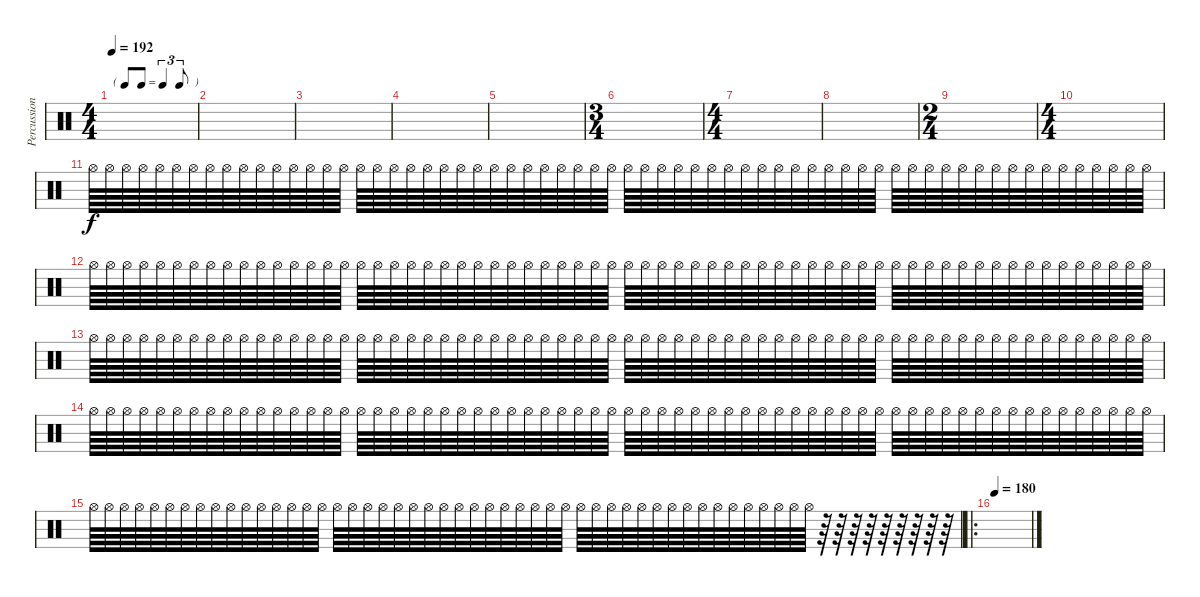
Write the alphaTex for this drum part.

\track ("Percussions" "Percussion") {instrument percussion}
\staff {score}
\articulation defaults
\ts (4 4)
\tf triplet8th
\tempo 192
\tempo 150
\tempo 192
\clef neutral
\ks c
|
|
|
|
|
\ts (3 4)
|
\ts (4 4)
|
|
\ts (2 4)
|
\ts (4 4)
|
"Hi-Hat (open)".64 "Hi-Hat (open)".64 "Hi-Hat (open)".64 "Hi-Hat (open)".64 "Hi-Hat (open)".64 "Hi-Hat (open)".64 "Hi-Hat (open)".64 "Hi-Hat (open)".64 "Hi-Hat (open)".64 "Hi-Hat (open)".64 "Hi-Hat (open)".64 "Hi-Hat (open)".64 "Hi-Hat (open)".64 "Hi-Hat (open)".64 "Hi-Hat (open)".64 "Hi-Hat (open)".64 "Hi-Hat (open)".64 "Hi-Hat (open)".64 "Hi-Hat (open)".64 "Hi-Hat (open)".64 "Hi-Hat (open)".64 "Hi-Hat (open)".64 "Hi-Hat (open)".64 "Hi-Hat (open)".64 "Hi-Hat (open)".64 "Hi-Hat (open)".64 "Hi-Hat (open)".64 "Hi-Hat (open)".64 "Hi-Hat (open)".64 "Hi-Hat (open)".64 "Hi-Hat (open)".64 "Hi-Hat (open)".64 "Hi-Hat (open)".64 "Hi-Hat (open)".64 "Hi-Hat (open)".64 "Hi-Hat (open)".64 "Hi-Hat (open)".64 "Hi-Hat (open)".64 "Hi-Hat (open)".64 "Hi-Hat (open)".64 "Hi-Hat (open)".64 "Hi-Hat (open)".64 "Hi-Hat (open)".64 "Hi-Hat (open)".64 "Hi-Hat (open)".64 "Hi-Hat (open)".64 "Hi-Hat (open)".64 "Hi-Hat (open)".64 "Hi-Hat (open)".64 "Hi-Hat (open)".64 "Hi-Hat (open)".64 "Hi-Hat (open)".64 "Hi-Hat (open)".64 "Hi-Hat (open)".64 "Hi-Hat (open)".64 "Hi-Hat (open)".64 "Hi-Hat (open)".64 "Hi-Hat (open)".64 "Hi-Hat (open)".64 "Hi-Hat (open)".64 "Hi-Hat (open)".64 "Hi-Hat (open)".64 "Hi-Hat (open)".64 "Hi-Hat (open)".64 |
"Hi-Hat (open)".64 "Hi-Hat (open)".64 "Hi-Hat (open)".64 "Hi-Hat (open)".64 "Hi-Hat (open)".64 "Hi-Hat (open)".64 "Hi-Hat (open)".64 "Hi-Hat (open)".64 "Hi-Hat (open)".64 "Hi-Hat (open)".64 "Hi-Hat (open)".64 "Hi-Hat (open)".64 "Hi-Hat (open)".64 "Hi-Hat (open)".64 "Hi-Hat (open)".64 "Hi-Hat (open)".64 "Hi-Hat (open)".64 "Hi-Hat (open)".64 "Hi-Hat (open)".64 "Hi-Hat (open)".64 "Hi-Hat (open)".64 "Hi-Hat (open)".64 "Hi-Hat (open)".64 "Hi-Hat (open)".64 "Hi-Hat (open)".64 "Hi-Hat (open)".64 "Hi-Hat (open)".64 "Hi-Hat (open)".64 "Hi-Hat (open)".64 "Hi-Hat (open)".64 "Hi-Hat (open)".64 "Hi-Hat (open)".64 "Hi-Hat (open)".64 "Hi-Hat (open)".64 "Hi-Hat (open)".64 "Hi-Hat (open)".64 "Hi-Hat (open)".64 "Hi-Hat (open)".64 "Hi-Hat (open)".64 "Hi-Hat (open)".64 "Hi-Hat (open)".64 "Hi-Hat (open)".64 "Hi-Hat (open)".64 "Hi-Hat (open)".64 "Hi-Hat (open)".64 "Hi-Hat (open)".64 "Hi-Hat (open)".64 "Hi-Hat (open)".64 "Hi-Hat (open)".64 "Hi-Hat (open)".64 "Hi-Hat (open)".64 "Hi-Hat (open)".64 "Hi-Hat (open)".64 "Hi-Hat (open)".64 "Hi-Hat (open)".64 "Hi-Hat (open)".64 "Hi-Hat (open)".64 "Hi-Hat (open)".64 "Hi-Hat (open)".64 "Hi-Hat (open)".64 "Hi-Hat (open)".64 "Hi-Hat (open)".64 "Hi-Hat (open)".64 "Hi-Hat (open)".64 |
"Hi-Hat (open)".64 "Hi-Hat (open)".64 "Hi-Hat (open)".64 "Hi-Hat (open)".64 "Hi-Hat (open)".64 "Hi-Hat (open)".64 "Hi-Hat (open)".64 "Hi-Hat (open)".64 "Hi-Hat (open)".64 "Hi-Hat (open)".64 "Hi-Hat (open)".64 "Hi-Hat (open)".64 "Hi-Hat (open)".64 "Hi-Hat (open)".64 "Hi-Hat (open)".64 "Hi-Hat (open)".64 "Hi-Hat (open)".64 "Hi-Hat (open)".64 "Hi-Hat (open)".64 "Hi-Hat (open)".64 "Hi-Hat (open)".64 "Hi-Hat (open)".64 "Hi-Hat (open)".64 "Hi-Hat (open)".64 "Hi-Hat (open)".64 "Hi-Hat (open)".64 "Hi-Hat (open)".64 "Hi-Hat (open)".64 "Hi-Hat (open)".64 "Hi-Hat (open)".64 "Hi-Hat (open)".64 "Hi-Hat (open)".64 "Hi-Hat (open)".64 "Hi-Hat (open)".64 "Hi-Hat (open)".64 "Hi-Hat (open)".64 "Hi-Hat (open)".64 "Hi-Hat (open)".64 "Hi-Hat (open)".64 "Hi-Hat (open)".64 "Hi-Hat (open)".64 "Hi-Hat (open)".64 "Hi-Hat (open)".64 "Hi-Hat (open)".64 "Hi-Hat (open)".64 "Hi-Hat (open)".64 "Hi-Hat (open)".64 "Hi-Hat (open)".64 "Hi-Hat (open)".64 "Hi-Hat (open)".64 "Hi-Hat (open)".64 "Hi-Hat (open)".64 "Hi-Hat (open)".64 "Hi-Hat (open)".64 "Hi-Hat (open)".64 "Hi-Hat (open)".64 "Hi-Hat (open)".64 "Hi-Hat (open)".64 "Hi-Hat (open)".64 "Hi-Hat (open)".64 "Hi-Hat (open)".64 "Hi-Hat (open)".64 "Hi-Hat (open)".64 "Hi-Hat (open)".64 |
"Hi-Hat (open)".64 "Hi-Hat (open)".64 "Hi-Hat (open)".64 "Hi-Hat (open)".64 "Hi-Hat (open)".64 "Hi-Hat (open)".64 "Hi-Hat (open)".64 "Hi-Hat (open)".64 "Hi-Hat (open)".64 "Hi-Hat (open)".64 "Hi-Hat (open)".64 "Hi-Hat (open)".64 "Hi-Hat (open)".64 "Hi-Hat (open)".64 "Hi-Hat (open)".64 "Hi-Hat (open)".64 "Hi-Hat (open)".64 "Hi-Hat (open)".64 "Hi-Hat (open)".64 "Hi-Hat (open)".64 "Hi-Hat (open)".64 "Hi-Hat (open)".64 "Hi-Hat (open)".64 "Hi-Hat (open)".64 "Hi-Hat (open)".64 "Hi-Hat (open)".64 "Hi-Hat (open)".64 "Hi-Hat (open)".64 "Hi-Hat (open)".64 "Hi-Hat (open)".64 "Hi-Hat (open)".64 "Hi-Hat (open)".64 "Hi-Hat (open)".64 "Hi-Hat (open)".64 "Hi-Hat (open)".64 "Hi-Hat (open)".64 "Hi-Hat (open)".64 "Hi-Hat (open)".64 "Hi-Hat (open)".64 "Hi-Hat (open)".64 "Hi-Hat (open)".64 "Hi-Hat (open)".64 "Hi-Hat (open)".64 "Hi-Hat (open)".64 "Hi-Hat (open)".64 "Hi-Hat (open)".64 "Hi-Hat (open)".64 "Hi-Hat (open)".64 "Hi-Hat (open)".64 "Hi-Hat (open)".64 "Hi-Hat (open)".64 "Hi-Hat (open)".64 "Hi-Hat (open)".64 "Hi-Hat (open)".64 "Hi-Hat (open)".64 "Hi-Hat (open)".64 "Hi-Hat (open)".64 "Hi-Hat (open)".64 "Hi-Hat (open)".64 "Hi-Hat (open)".64 "Hi-Hat (open)".64 "Hi-Hat (open)".64 "Hi-Hat (open)".64 "Hi-Hat (open)".64 |
"Hi-Hat (open)".64 "Hi-Hat (open)".64 "Hi-Hat (open)".64 "Hi-Hat (open)".64 "Hi-Hat (open)".64 "Hi-Hat (open)".64 "Hi-Hat (open)".64 "Hi-Hat (open)".64 "Hi-Hat (open)".64 "Hi-Hat (open)".64 "Hi-Hat (open)".64 "Hi-Hat (open)".64 "Hi-Hat (open)".64 "Hi-Hat (open)".64 "Hi-Hat (open)".64 "Hi-Hat (open)".64 "Hi-Hat (open)".64 "Hi-Hat (open)".64 "Hi-Hat (open)".64 "Hi-Hat (open)".64 "Hi-Hat (open)".64 "Hi-Hat (open)".64 "Hi-Hat (open)".64 "Hi-Hat (open)".64 "Hi-Hat (open)".64 "Hi-Hat (open)".64 "Hi-Hat (open)".64 "Hi-Hat (open)".64 "Hi-Hat (open)".64 "Hi-Hat (open)".64 "Hi-Hat (open)".64 "Hi-Hat (open)".64 "Hi-Hat (open)".64 "Hi-Hat (open)".64 "Hi-Hat (open)".64 "Hi-Hat (open)".64 "Hi-Hat (open)".64 "Hi-Hat (open)".64 "Hi-Hat (open)".64 "Hi-Hat (open)".64 "Hi-Hat (open)".64 "Hi-Hat (open)".64 "Hi-Hat (open)".64 "Hi-Hat (open)".64 "Hi-Hat (open)".64 "Hi-Hat (open)".64 "Hi-Hat (open)".64 "Hi-Hat (open)".64 r.64 r.64 r.64 r.64 r.64 r.64 r.64 r.64 r.64 |
\ro
\tempo 180
